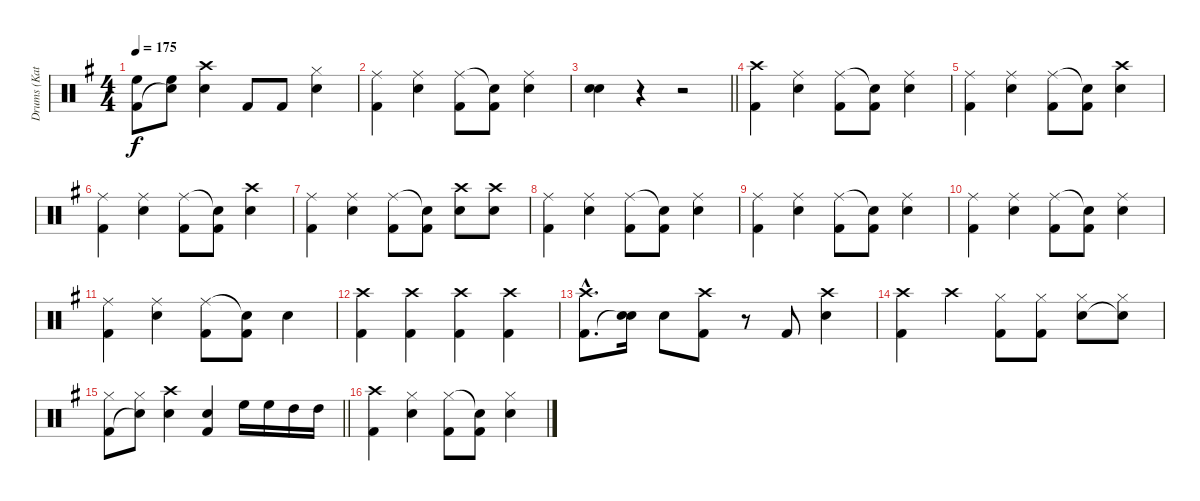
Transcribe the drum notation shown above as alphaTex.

\track ("Drums (Katsuji)" "Drums (Kat") {instrument percussion}
\staff {score}
\articulation defaults
\ts (4 4)
\tempo 175
\clef neutral
\ks g
("High Floor Tom (hit)" "Kick (hit) 2").8{dy f} ("High Floor Tom (hit)" "Snare (hit)"{t}).8 ("Crash high (hit)" "Snare (hit) 2").4 "Kick (hit) 2".8 "Kick (hit) 2".8 ("Hi-Hat (closed)" "Snare (hit) 2").4 |
("Ride (middle)" "Kick (hit) 2").4 ("Ride (middle)" "Snare (hit) 2").4 ("Ride (middle)" "Kick (hit) 2").8 ("Snare (hit)"{t} "Kick (hit) 2").8 ("Ride (middle)" "Snare (hit) 2").4 |
\barLineRight lightlight
("Snare (hit) 2" "Snare (hit) 2").4 r.4 r.2 |
("Crash high (hit)" "Kick (hit) 2").4 ("Ride (middle)" "Snare (hit) 2").4 ("Ride (middle)" "Kick (hit) 2").8 ("Snare (hit)"{t} "Kick (hit) 2").8 ("Ride (middle)" "Snare (hit) 2").4 |
("Ride (middle)" "Kick (hit) 2").4 ("Ride (middle)" "Snare (hit) 2").4 ("Ride (middle)" "Kick (hit) 2").8 ("Snare (hit)"{t} "Kick (hit) 2").8 ("Crash high (hit)" "Snare (hit) 2").4 |
("Ride (middle)" "Kick (hit) 2").4 ("Ride (middle)" "Snare (hit) 2").4 ("Ride (middle)" "Kick (hit) 2").8 ("Snare (hit)"{t} "Kick (hit) 2").8 ("Crash high (hit)" "Snare (hit) 2").4 |
("Ride (middle)" "Kick (hit) 2").4 ("Ride (middle)" "Snare (hit) 2").4 ("Ride (middle)" "Kick (hit) 2").8 ("Snare (hit)"{t} "Kick (hit) 2").8 ("Crash high (hit)" "Snare (hit) 2").8 ("Crash high (hit)" "Snare (hit) 2").8 |
("Ride (middle)" "Kick (hit) 2").4 ("Ride (middle)" "Snare (hit) 2").4 ("Ride (middle)" "Kick (hit) 2").8 ("Snare (hit)"{t} "Kick (hit) 2").8 ("Ride (middle)" "Snare (hit) 2").4 |
("Ride (middle)" "Kick (hit) 2").4 ("Ride (middle)" "Snare (hit) 2").4 ("Ride (middle)" "Kick (hit) 2").8 ("Snare (hit)"{t} "Kick (hit) 2").8 ("Ride (middle)" "Snare (hit) 2").4 |
("Ride (middle)" "Kick (hit) 2").4 ("Ride (middle)" "Snare (hit) 2").4 ("Ride (middle)" "Kick (hit) 2").8 ("Snare (hit)"{t} "Kick (hit) 2").8 ("Ride (middle)" "Snare (hit) 2").4 |
("Ride (middle)" "Kick (hit) 2").4 ("Ride (middle)" "Snare (hit) 2").4 ("Ride (middle)" "Kick (hit) 2").8 ("Snare (hit)"{t} "Kick (hit) 2").8 "Snare (hit) 2".4 |
("Crash high (hit)" "Kick (hit) 2").4 ("Crash high (hit)" "Kick (hit) 2").4 ("Crash high (hit)" "Kick (hit) 2").4 ("Crash high (hit)" "Kick (hit) 2").4 |
("Crash high (hit)"{hac} "Kick (hit) 2"{hac}).8{d} ("Snare (hit) 2" "Snare (hit)"{t}).16 "Snare (hit) 2".8 ("Crash high (hit)" "Kick (hit) 2").8 r.8 "Kick (hit) 2".8 ("Crash high (hit)" "Snare (hit) 2").4 |
("Crash high (hit)" "Kick (hit) 2").4 "Crash high (hit)".4 ("Hi-Hat (closed)" "Kick (hit) 2").8 ("Hi-Hat (closed)" "Kick (hit) 2").8 ("Hi-Hat (closed)" "Snare (hit) 2").8 ("Hi-Hat (closed)" "Snare (hit)"{t}).8 |
\barLineRight lightlight
("Hi-Hat (closed)" "Kick (hit) 2").8 ("Hi-Hat (closed)" "Snare (hit)"{t}).8 ("Crash high (hit)" "Snare (hit) 2").4 ("Snare (hit) 2" "Kick (hit) 2").4 "High Floor Tom (hit)".16 "High Floor Tom (hit)".16 "High Tom (hit)".16 "High Tom (hit)".16 |
("Crash high (hit)" "Kick (hit) 2").4 ("Hi-Hat (closed)" "Snare (hit) 2").4 ("Hi-Hat (closed)" "Kick (hit) 2").8 ("Snare (hit)"{t} "Kick (hit) 2").8 ("Hi-Hat (closed)" "Snare (hit) 2").4
